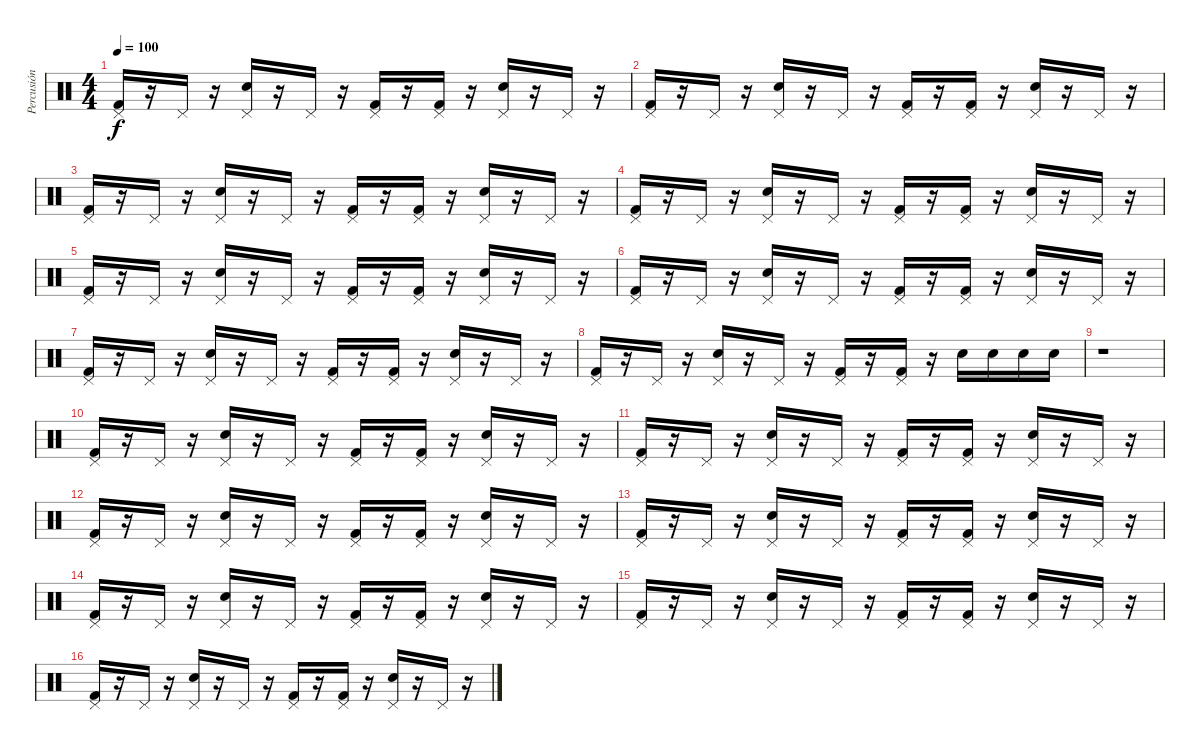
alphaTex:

\track ("Percusión" "Percusión") {instrument percussion}
\staff {score}
\articulation defaults
\ts (4 4)
\tempo 100
\clef neutral
\ks c
("Pedal Hi-Hat (hit)" "Kick (hit) 2").16{dy f} r.16 "Pedal Hi-Hat (hit)".16 r.16 ("Pedal Hi-Hat (hit)" "Snare (hit) 2").16 r.16 "Pedal Hi-Hat (hit)".16 r.16 ("Pedal Hi-Hat (hit)" "Kick (hit) 2").16 r.16 ("Pedal Hi-Hat (hit)" "Kick (hit) 2").16 r.16 ("Pedal Hi-Hat (hit)" "Snare (hit) 2").16 r.16 "Pedal Hi-Hat (hit)".16 r.16 |
("Pedal Hi-Hat (hit)" "Kick (hit) 2").16 r.16 "Pedal Hi-Hat (hit)".16 r.16 ("Pedal Hi-Hat (hit)" "Snare (hit) 2").16 r.16 "Pedal Hi-Hat (hit)".16 r.16 ("Pedal Hi-Hat (hit)" "Kick (hit) 2").16 r.16 ("Pedal Hi-Hat (hit)" "Kick (hit) 2").16 r.16 ("Pedal Hi-Hat (hit)" "Snare (hit) 2").16 r.16 "Pedal Hi-Hat (hit)".16 r.16 |
("Pedal Hi-Hat (hit)" "Kick (hit) 2").16 r.16 "Pedal Hi-Hat (hit)".16 r.16 ("Pedal Hi-Hat (hit)" "Snare (hit) 2").16 r.16 "Pedal Hi-Hat (hit)".16 r.16 ("Pedal Hi-Hat (hit)" "Kick (hit) 2").16 r.16 ("Pedal Hi-Hat (hit)" "Kick (hit) 2").16 r.16 ("Pedal Hi-Hat (hit)" "Snare (hit) 2").16 r.16 "Pedal Hi-Hat (hit)".16 r.16 |
("Pedal Hi-Hat (hit)" "Kick (hit) 2").16 r.16 "Pedal Hi-Hat (hit)".16 r.16 ("Pedal Hi-Hat (hit)" "Snare (hit) 2").16 r.16 "Pedal Hi-Hat (hit)".16 r.16 ("Pedal Hi-Hat (hit)" "Kick (hit) 2").16 r.16 ("Pedal Hi-Hat (hit)" "Kick (hit) 2").16 r.16 ("Pedal Hi-Hat (hit)" "Snare (hit) 2").16 r.16 "Pedal Hi-Hat (hit)".16 r.16 |
("Pedal Hi-Hat (hit)" "Kick (hit) 2").16 r.16 "Pedal Hi-Hat (hit)".16 r.16 ("Pedal Hi-Hat (hit)" "Snare (hit) 2").16 r.16 "Pedal Hi-Hat (hit)".16 r.16 ("Pedal Hi-Hat (hit)" "Kick (hit) 2").16 r.16 ("Pedal Hi-Hat (hit)" "Kick (hit) 2").16 r.16 ("Pedal Hi-Hat (hit)" "Snare (hit) 2").16 r.16 "Pedal Hi-Hat (hit)".16 r.16 |
("Pedal Hi-Hat (hit)" "Kick (hit) 2").16 r.16 "Pedal Hi-Hat (hit)".16 r.16 ("Pedal Hi-Hat (hit)" "Snare (hit) 2").16 r.16 "Pedal Hi-Hat (hit)".16 r.16 ("Pedal Hi-Hat (hit)" "Kick (hit) 2").16 r.16 ("Pedal Hi-Hat (hit)" "Kick (hit) 2").16 r.16 ("Pedal Hi-Hat (hit)" "Snare (hit) 2").16 r.16 "Pedal Hi-Hat (hit)".16 r.16 |
("Pedal Hi-Hat (hit)" "Kick (hit) 2").16 r.16 "Pedal Hi-Hat (hit)".16 r.16 ("Pedal Hi-Hat (hit)" "Snare (hit) 2").16 r.16 "Pedal Hi-Hat (hit)".16 r.16 ("Pedal Hi-Hat (hit)" "Kick (hit) 2").16 r.16 ("Pedal Hi-Hat (hit)" "Kick (hit) 2").16 r.16 ("Pedal Hi-Hat (hit)" "Snare (hit) 2").16 r.16 "Pedal Hi-Hat (hit)".16 r.16 |
("Pedal Hi-Hat (hit)" "Kick (hit) 2").16 r.16 "Pedal Hi-Hat (hit)".16 r.16 ("Pedal Hi-Hat (hit)" "Snare (hit) 2").16 r.16 "Pedal Hi-Hat (hit)".16 r.16 ("Pedal Hi-Hat (hit)" "Kick (hit) 2").16 r.16 ("Pedal Hi-Hat (hit)" "Kick (hit) 2").16 r.16 "Snare (hit) 2".16 "Snare (hit) 2".16 "Snare (hit) 2".16 "Snare (hit) 2".16 |
r.1 |
("Pedal Hi-Hat (hit)" "Kick (hit) 2").16 r.16 "Pedal Hi-Hat (hit)".16 r.16 ("Pedal Hi-Hat (hit)" "Snare (hit) 2").16 r.16 "Pedal Hi-Hat (hit)".16 r.16 ("Pedal Hi-Hat (hit)" "Kick (hit) 2").16 r.16 ("Pedal Hi-Hat (hit)" "Kick (hit) 2").16 r.16 ("Pedal Hi-Hat (hit)" "Snare (hit) 2").16 r.16 "Pedal Hi-Hat (hit)".16 r.16 |
("Pedal Hi-Hat (hit)" "Kick (hit) 2").16 r.16 "Pedal Hi-Hat (hit)".16 r.16 ("Pedal Hi-Hat (hit)" "Snare (hit) 2").16 r.16 "Pedal Hi-Hat (hit)".16 r.16 ("Pedal Hi-Hat (hit)" "Kick (hit) 2").16 r.16 ("Pedal Hi-Hat (hit)" "Kick (hit) 2").16 r.16 ("Pedal Hi-Hat (hit)" "Snare (hit) 2").16 r.16 "Pedal Hi-Hat (hit)".16 r.16 |
("Pedal Hi-Hat (hit)" "Kick (hit) 2").16 r.16 "Pedal Hi-Hat (hit)".16 r.16 ("Pedal Hi-Hat (hit)" "Snare (hit) 2").16 r.16 "Pedal Hi-Hat (hit)".16 r.16 ("Pedal Hi-Hat (hit)" "Kick (hit) 2").16 r.16 ("Pedal Hi-Hat (hit)" "Kick (hit) 2").16 r.16 ("Pedal Hi-Hat (hit)" "Snare (hit) 2").16 r.16 "Pedal Hi-Hat (hit)".16 r.16 |
("Pedal Hi-Hat (hit)" "Kick (hit) 2").16 r.16 "Pedal Hi-Hat (hit)".16 r.16 ("Pedal Hi-Hat (hit)" "Snare (hit) 2").16 r.16 "Pedal Hi-Hat (hit)".16 r.16 ("Pedal Hi-Hat (hit)" "Kick (hit) 2").16 r.16 ("Pedal Hi-Hat (hit)" "Kick (hit) 2").16 r.16 ("Pedal Hi-Hat (hit)" "Snare (hit) 2").16 r.16 "Pedal Hi-Hat (hit)".16 r.16 |
("Pedal Hi-Hat (hit)" "Kick (hit) 2").16 r.16 "Pedal Hi-Hat (hit)".16 r.16 ("Pedal Hi-Hat (hit)" "Snare (hit) 2").16 r.16 "Pedal Hi-Hat (hit)".16 r.16 ("Pedal Hi-Hat (hit)" "Kick (hit) 2").16 r.16 ("Pedal Hi-Hat (hit)" "Kick (hit) 2").16 r.16 ("Pedal Hi-Hat (hit)" "Snare (hit) 2").16 r.16 "Pedal Hi-Hat (hit)".16 r.16 |
("Pedal Hi-Hat (hit)" "Kick (hit) 2").16 r.16 "Pedal Hi-Hat (hit)".16 r.16 ("Pedal Hi-Hat (hit)" "Snare (hit) 2").16 r.16 "Pedal Hi-Hat (hit)".16 r.16 ("Pedal Hi-Hat (hit)" "Kick (hit) 2").16 r.16 ("Pedal Hi-Hat (hit)" "Kick (hit) 2").16 r.16 ("Pedal Hi-Hat (hit)" "Snare (hit) 2").16 r.16 "Pedal Hi-Hat (hit)".16 r.16 |
("Pedal Hi-Hat (hit)" "Kick (hit) 2").16 r.16 "Pedal Hi-Hat (hit)".16 r.16 ("Pedal Hi-Hat (hit)" "Snare (hit) 2").16 r.16 "Pedal Hi-Hat (hit)".16 r.16 ("Pedal Hi-Hat (hit)" "Kick (hit) 2").16 r.16 ("Pedal Hi-Hat (hit)" "Kick (hit) 2").16 r.16 ("Pedal Hi-Hat (hit)" "Snare (hit) 2").16 r.16 "Pedal Hi-Hat (hit)".16 r.16
